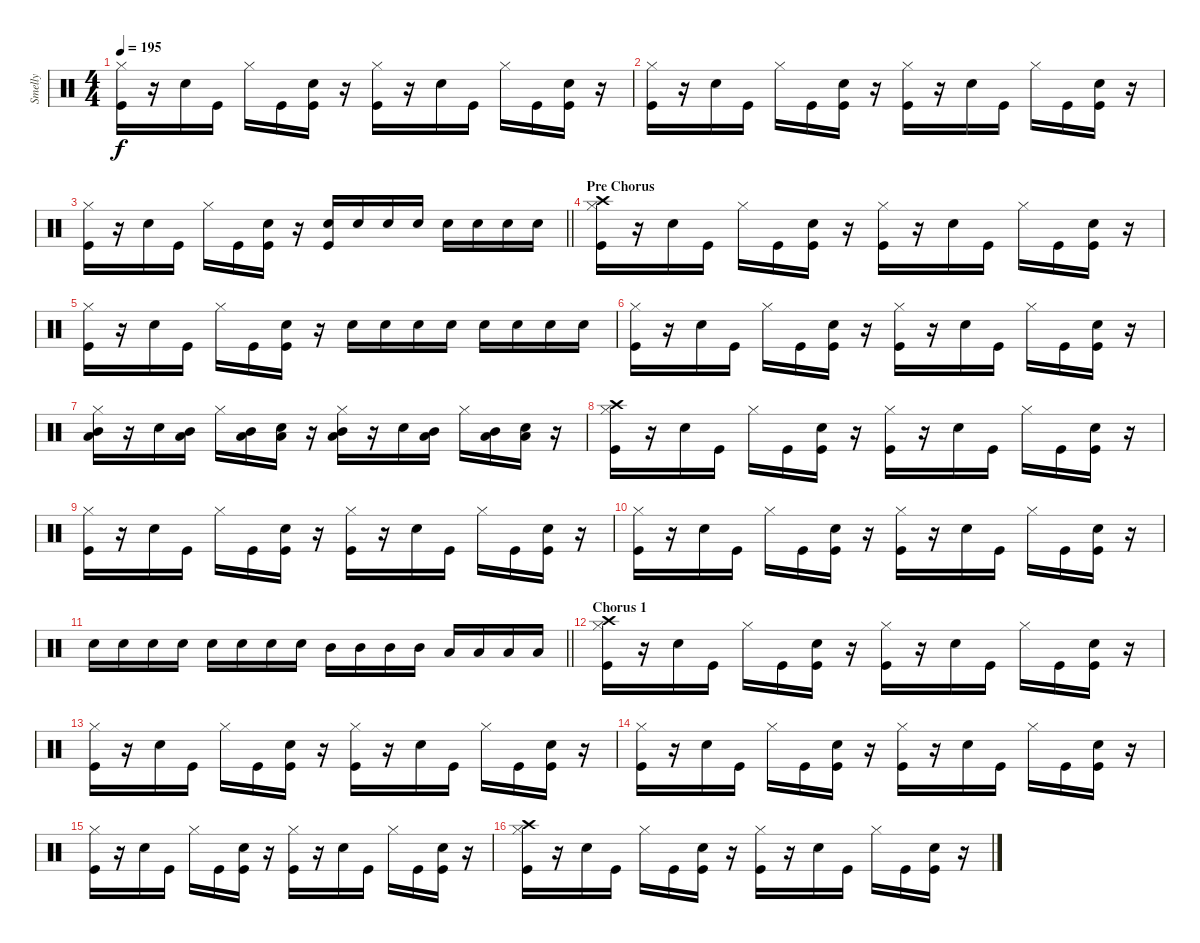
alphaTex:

\track ("Smelly" "Smelly") {instrument percussion}
\staff {score}
\articulation defaults
\ts (4 4)
\tempo 195
\clef neutral
\ks c
("Hi-Hat (closed)" "Kick (hit)").16{dy f} r.16 "Snare (hit) 2".16 "Kick (hit)".16 "Hi-Hat (closed)".16 "Kick (hit)".16 ("Snare (hit) 2" "Kick (hit)").16 r.16 ("Hi-Hat (closed)" "Kick (hit)").16 r.16 "Snare (hit) 2".16 "Kick (hit)".16 "Hi-Hat (closed)".16 "Kick (hit)".16 ("Snare (hit) 2" "Kick (hit)").16 r.16 |
("Hi-Hat (closed)" "Kick (hit)").16 r.16 "Snare (hit) 2".16 "Kick (hit)".16 "Hi-Hat (closed)".16 "Kick (hit)".16 ("Snare (hit) 2" "Kick (hit)").16 r.16 ("Hi-Hat (closed)" "Kick (hit)").16 r.16 "Snare (hit) 2".16 "Kick (hit)".16 "Hi-Hat (closed)".16 "Kick (hit)".16 ("Snare (hit) 2" "Kick (hit)").16 r.16 |
\barLineRight lightlight
("Hi-Hat (closed)" "Kick (hit)").16 r.16 "Snare (hit) 2".16 "Kick (hit)".16 "Hi-Hat (closed)".16 "Kick (hit)".16 ("Snare (hit) 2" "Kick (hit)").16 r.16 ("Snare (hit) 2" "Kick (hit)").16 "Snare (hit) 2".16 "Snare (hit) 2".16 "Snare (hit) 2".16 "Snare (hit) 2".16 "Snare (hit) 2".16 "Snare (hit) 2".16 "Snare (hit) 2".16 |
\section ("" "Pre Chorus")
("Crash high (hit)" "Hi-Hat (closed)" "Kick (hit)").16 r.16 "Snare (hit) 2".16 "Kick (hit)".16 "Hi-Hat (closed)".16 "Kick (hit)".16 ("Snare (hit) 2" "Kick (hit)").16 r.16 ("Hi-Hat (closed)" "Kick (hit)").16 r.16 "Snare (hit) 2".16 "Kick (hit)".16 "Hi-Hat (closed)".16 "Kick (hit)".16 ("Snare (hit) 2" "Kick (hit)").16 r.16 |
("Hi-Hat (closed)" "Kick (hit)").16 r.16 "Snare (hit) 2".16 "Kick (hit)".16 "Hi-Hat (closed)".16 "Kick (hit)".16 ("Snare (hit) 2" "Kick (hit)").16 r.16 "Snare (hit) 2".16 "Snare (hit) 2".16 "Snare (hit) 2".16 "Snare (hit) 2".16 "Snare (hit) 2".16 "Snare (hit) 2".16 "Snare (hit) 2".16 "Snare (hit) 2".16 |
("Hi-Hat (closed)" "Kick (hit)").16 r.16 "Snare (hit) 2".16 "Kick (hit)".16 "Hi-Hat (closed)".16 "Kick (hit)".16 ("Snare (hit) 2" "Kick (hit)").16 r.16 ("Hi-Hat (closed)" "Kick (hit)").16 r.16 "Snare (hit) 2".16 "Kick (hit)".16 "Hi-Hat (closed)".16 "Kick (hit)".16 ("Snare (hit) 2" "Kick (hit)").16 r.16 |
("Hi-Hat (closed)" "Mid Tom (hit)" "Low Tom (hit)").16 r.16 "Snare (hit) 2".16 ("Mid Tom (hit)" "Low Tom (hit)").16 "Hi-Hat (closed)".16 ("Mid Tom (hit)" "Low Tom (hit)").16 ("Snare (hit) 2" "Low Tom (hit)").16 r.16 ("Hi-Hat (closed)" "Mid Tom (hit)" "Low Tom (hit)").16 r.16 "Snare (hit) 2".16 ("Mid Tom (hit)" "Low Tom (hit)").16 "Hi-Hat (closed)".16 ("Mid Tom (hit)" "Low Tom (hit)").16 ("Snare (hit) 2" "Low Tom (hit)").16 r.16 |
("Crash high (hit)" "Hi-Hat (closed)" "Kick (hit)").16 r.16 "Snare (hit) 2".16 "Kick (hit)".16 "Hi-Hat (closed)".16 "Kick (hit)".16 ("Snare (hit) 2" "Kick (hit)").16 r.16 ("Hi-Hat (closed)" "Kick (hit)").16 r.16 "Snare (hit) 2".16 "Kick (hit)".16 "Hi-Hat (closed)".16 "Kick (hit)".16 ("Snare (hit) 2" "Kick (hit)").16 r.16 |
("Hi-Hat (closed)" "Kick (hit)").16 r.16 "Snare (hit) 2".16 "Kick (hit)".16 "Hi-Hat (closed)".16 "Kick (hit)".16 ("Snare (hit) 2" "Kick (hit)").16 r.16 ("Hi-Hat (closed)" "Kick (hit)").16 r.16 "Snare (hit) 2".16 "Kick (hit)".16 "Hi-Hat (closed)".16 "Kick (hit)".16 ("Snare (hit) 2" "Kick (hit)").16 r.16 |
("Hi-Hat (closed)" "Kick (hit)").16 r.16 "Snare (hit) 2".16 "Kick (hit)".16 "Hi-Hat (closed)".16 "Kick (hit)".16 ("Snare (hit) 2" "Kick (hit)").16 r.16 ("Hi-Hat (closed)" "Kick (hit)").16 r.16 "Snare (hit) 2".16 "Kick (hit)".16 "Hi-Hat (closed)".16 "Kick (hit)".16 ("Snare (hit) 2" "Kick (hit)").16 r.16 |
\barLineRight lightlight "Snare (hit) 2".16 "Snare (hit) 2".16 "Snare (hit) 2".16 "Snare (hit) 2".16 "Snare (hit) 2".16 "Snare (hit) 2".16 "Snare (hit) 2".16 "Snare (hit) 2".16 "Mid Tom (hit)".16 "Mid Tom (hit)".16 "Mid Tom (hit)".16 "Mid Tom (hit)".16 "Low Tom (hit)".16 "Low Tom (hit)".16 "Low Tom (hit)".16 "Low Tom (hit)".16
|
\section ("" "Chorus 1")
("Crash high (hit)" "Hi-Hat (closed)" "Kick (hit)").16 r.16 "Snare (hit) 2".16 "Kick (hit)".16 "Hi-Hat (closed)".16 "Kick (hit)".16 ("Snare (hit) 2" "Kick (hit)").16 r.16 ("Hi-Hat (closed)" "Kick (hit)").16 r.16 "Snare (hit) 2".16 "Kick (hit)".16 "Hi-Hat (closed)".16 "Kick (hit)".16 ("Snare (hit) 2" "Kick (hit)").16 r.16 |
("Hi-Hat (closed)" "Kick (hit)").16 r.16 "Snare (hit) 2".16 "Kick (hit)".16 "Hi-Hat (closed)".16 "Kick (hit)".16 ("Snare (hit) 2" "Kick (hit)").16 r.16 ("Hi-Hat (closed)" "Kick (hit)").16 r.16 "Snare (hit) 2".16 "Kick (hit)".16 "Hi-Hat (closed)".16 "Kick (hit)".16 ("Snare (hit) 2" "Kick (hit)").16 r.16 |
("Hi-Hat (closed)" "Kick (hit)").16 r.16 "Snare (hit) 2".16 "Kick (hit)".16 "Hi-Hat (closed)".16 "Kick (hit)".16 ("Snare (hit) 2" "Kick (hit)").16 r.16 ("Hi-Hat (closed)" "Kick (hit)").16 r.16 "Snare (hit) 2".16 "Kick (hit)".16 "Hi-Hat (closed)".16 "Kick (hit)".16 ("Snare (hit) 2" "Kick (hit)").16 r.16 |
("Hi-Hat (closed)" "Kick (hit)").16 r.16 "Snare (hit) 2".16 "Kick (hit)".16 "Hi-Hat (closed)".16 "Kick (hit)".16 ("Snare (hit) 2" "Kick (hit)").16 r.16 ("Hi-Hat (closed)" "Kick (hit)").16 r.16 "Snare (hit) 2".16 "Kick (hit)".16 "Hi-Hat (closed)".16 "Kick (hit)".16 ("Snare (hit) 2" "Kick (hit)").16 r.16 |
("Crash high (hit)" "Hi-Hat (closed)" "Kick (hit)").16 r.16 "Snare (hit) 2".16 "Kick (hit)".16 "Hi-Hat (closed)".16 "Kick (hit)".16 ("Snare (hit) 2" "Kick (hit)").16 r.16 ("Hi-Hat (closed)" "Kick (hit)").16 r.16 "Snare (hit) 2".16 "Kick (hit)".16 "Hi-Hat (closed)".16 "Kick (hit)".16 ("Snare (hit) 2" "Kick (hit)").16 r.16
